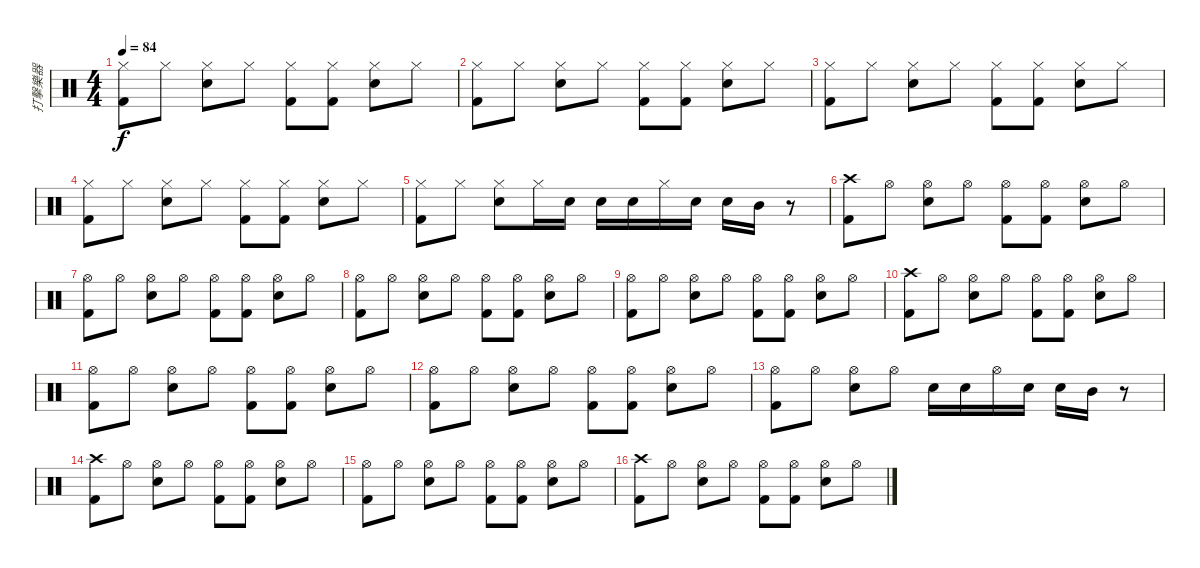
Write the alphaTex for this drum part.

\track ("打擊樂器" "打擊樂器") {instrument percussion}
\staff {score}
\articulation defaults
\ts (4 4)
\tempo 84
\clef neutral
\ks c
("Hi-Hat (closed)" "Kick (hit) 2").8{dy f} "Hi-Hat (closed)".8 ("Hi-Hat (closed)" "Snare (hit) 2").8 "Hi-Hat (closed)".8 ("Hi-Hat (closed)" "Kick (hit) 2").8 ("Hi-Hat (closed)" "Kick (hit) 2").8 ("Hi-Hat (closed)" "Snare (hit) 2").8 "Hi-Hat (closed)".8 |
("Hi-Hat (closed)" "Kick (hit) 2").8 "Hi-Hat (closed)".8 ("Hi-Hat (closed)" "Snare (hit) 2").8 "Hi-Hat (closed)".8 ("Hi-Hat (closed)" "Kick (hit) 2").8 ("Hi-Hat (closed)" "Kick (hit) 2").8 ("Hi-Hat (closed)" "Snare (hit) 2").8 "Hi-Hat (closed)".8 |
("Hi-Hat (closed)" "Kick (hit) 2").8 "Hi-Hat (closed)".8 ("Hi-Hat (closed)" "Snare (hit) 2").8 "Hi-Hat (closed)".8 ("Hi-Hat (closed)" "Kick (hit) 2").8 ("Hi-Hat (closed)" "Kick (hit) 2").8 ("Hi-Hat (closed)" "Snare (hit) 2").8 "Hi-Hat (closed)".8 |
("Hi-Hat (closed)" "Kick (hit) 2").8 "Hi-Hat (closed)".8 ("Hi-Hat (closed)" "Snare (hit) 2").8 "Hi-Hat (closed)".8 ("Hi-Hat (closed)" "Kick (hit) 2").8 ("Hi-Hat (closed)" "Kick (hit) 2").8 ("Hi-Hat (closed)" "Snare (hit) 2").8 "Hi-Hat (closed)".8 |
("Hi-Hat (closed)" "Kick (hit) 2").8 "Hi-Hat (closed)".8 ("Hi-Hat (closed)" "Snare (hit) 2").8 "Hi-Hat (closed)".16 "Snare (hit) 2".16 "Snare (hit) 2".16 "Snare (hit) 2".16 "Hi-Hat (closed)".16 "Snare (hit) 2".16 "Snare (hit) 2".16 "Mid Tom (hit)".16 r.8 |
("Crash high (hit)" "Kick (hit) 2").8 "Hi-Hat (open)".8 ("Hi-Hat (open)" "Snare (hit) 2").8 "Hi-Hat (open)".8 ("Hi-Hat (open)" "Kick (hit) 2").8 ("Hi-Hat (open)" "Kick (hit) 2").8 ("Hi-Hat (open)" "Snare (hit) 2").8 "Hi-Hat (open)".8 |
("Hi-Hat (open)" "Kick (hit) 2").8 "Hi-Hat (open)".8 ("Hi-Hat (open)" "Snare (hit) 2").8 "Hi-Hat (open)".8 ("Hi-Hat (open)" "Kick (hit) 2").8 ("Hi-Hat (open)" "Kick (hit) 2").8 ("Hi-Hat (open)" "Snare (hit) 2").8 "Hi-Hat (open)".8 |
("Hi-Hat (open)" "Kick (hit) 2").8 "Hi-Hat (open)".8 ("Hi-Hat (open)" "Snare (hit) 2").8 "Hi-Hat (open)".8 ("Hi-Hat (open)" "Kick (hit) 2").8 ("Hi-Hat (open)" "Kick (hit) 2").8 ("Hi-Hat (open)" "Snare (hit) 2").8 "Hi-Hat (open)".8 |
("Hi-Hat (open)" "Kick (hit) 2").8 "Hi-Hat (open)".8 ("Hi-Hat (open)" "Snare (hit) 2").8 "Hi-Hat (open)".8 ("Hi-Hat (open)" "Kick (hit) 2").8 ("Hi-Hat (open)" "Kick (hit) 2").8 ("Hi-Hat (open)" "Snare (hit) 2").8 "Hi-Hat (open)".8 |
("Crash high (hit)" "Kick (hit) 2").8 "Hi-Hat (open)".8 ("Hi-Hat (open)" "Snare (hit) 2").8 "Hi-Hat (open)".8 ("Hi-Hat (open)" "Kick (hit) 2").8 ("Hi-Hat (open)" "Kick (hit) 2").8 ("Hi-Hat (open)" "Snare (hit) 2").8 "Hi-Hat (open)".8 |
("Hi-Hat (open)" "Kick (hit) 2").8 "Hi-Hat (open)".8 ("Hi-Hat (open)" "Snare (hit) 2").8 "Hi-Hat (open)".8 ("Hi-Hat (open)" "Kick (hit) 2").8 ("Hi-Hat (open)" "Kick (hit) 2").8 ("Hi-Hat (open)" "Snare (hit) 2").8 "Hi-Hat (open)".8 |
("Hi-Hat (open)" "Kick (hit) 2").8 "Hi-Hat (open)".8 ("Hi-Hat (open)" "Snare (hit) 2").8 "Hi-Hat (open)".8 ("Hi-Hat (open)" "Kick (hit) 2").8 ("Hi-Hat (open)" "Kick (hit) 2").8 ("Hi-Hat (open)" "Snare (hit) 2").8 "Hi-Hat (open)".8 |
("Hi-Hat (open)" "Kick (hit) 2").8 "Hi-Hat (open)".8 ("Hi-Hat (open)" "Snare (hit) 2").8 "Hi-Hat (open)".8 "Snare (hit) 2".16 "Snare (hit) 2".16 "Hi-Hat (open)".16 "Snare (hit) 2".16 "Snare (hit) 2".16 "Mid Tom (hit)".16 r.8 |
("Crash high (hit)" "Kick (hit) 2").8 "Hi-Hat (open)".8 ("Hi-Hat (open)" "Snare (hit) 2").8 "Hi-Hat (open)".8 ("Hi-Hat (open)" "Kick (hit) 2").8 ("Hi-Hat (open)" "Kick (hit) 2").8 ("Hi-Hat (open)" "Snare (hit) 2").8 "Hi-Hat (open)".8 |
("Hi-Hat (open)" "Kick (hit) 2").8 "Hi-Hat (open)".8 ("Hi-Hat (open)" "Snare (hit) 2").8 "Hi-Hat (open)".8 ("Hi-Hat (open)" "Kick (hit) 2").8 ("Hi-Hat (open)" "Kick (hit) 2").8 ("Hi-Hat (open)" "Snare (hit) 2").8 "Hi-Hat (open)".8 |
("Crash high (hit)" "Kick (hit) 2").8 "Hi-Hat (open)".8 ("Hi-Hat (open)" "Snare (hit) 2").8 "Hi-Hat (open)".8 ("Hi-Hat (open)" "Kick (hit) 2").8 ("Hi-Hat (open)" "Kick (hit) 2").8 ("Hi-Hat (open)" "Snare (hit) 2").8 "Hi-Hat (open)".8
